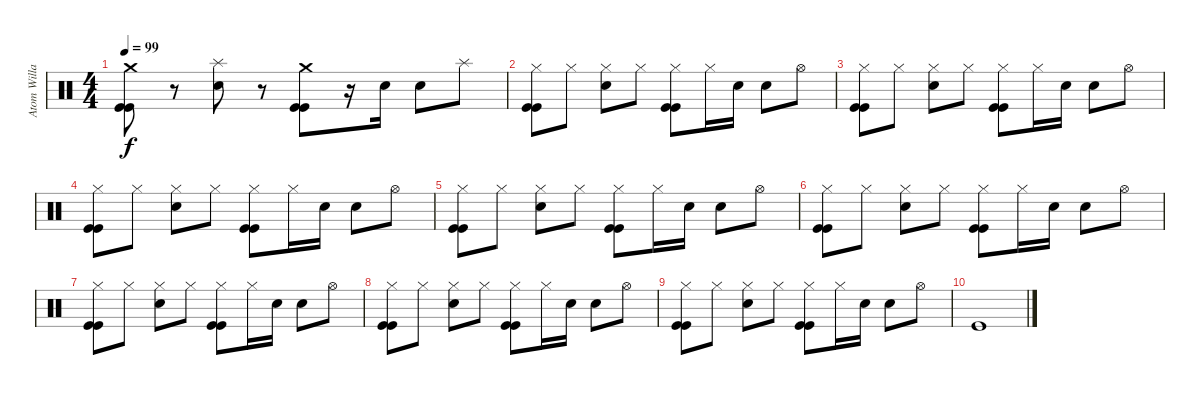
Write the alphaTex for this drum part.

\track ("Atom Willard" "Atom Willa") {instrument percussion}
\staff {score}
\articulation defaults
\ts (4 4)
\tempo 99
\clef neutral
\ks c
("Crash medium (hit)" "Kick (hit)" "Kick (hit)").8{dy f} r.8 ("Splash (hit)" "Electric Snare (hit)").8 r.8 ("Crash medium (hit)" "Kick (hit)" "Kick (hit)").8 r.16 "Electric Snare (hit)".16 "Electric Snare (hit)".8 "Splash (hit)".8 |
("Hi-Hat (closed)" "Kick (hit)" "Kick (hit)").8 "Hi-Hat (closed)".8 ("Hi-Hat (closed)" "Electric Snare (hit)").8 "Hi-Hat (closed)".8 ("Hi-Hat (closed)" "Kick (hit)" "Kick (hit)").8 "Hi-Hat (closed)".16 "Electric Snare (hit)".16 "Electric Snare (hit)".8 "Hi-Hat (open)".8 |
("Hi-Hat (closed)" "Kick (hit)" "Kick (hit)").8 "Hi-Hat (closed)".8 ("Hi-Hat (closed)" "Electric Snare (hit)").8 "Hi-Hat (closed)".8 ("Hi-Hat (closed)" "Kick (hit)" "Kick (hit)").8 "Hi-Hat (closed)".16 "Electric Snare (hit)".16 "Electric Snare (hit)".8 "Hi-Hat (open)".8 |
("Hi-Hat (closed)" "Kick (hit)" "Kick (hit)").8 "Hi-Hat (closed)".8 ("Hi-Hat (closed)" "Electric Snare (hit)").8 "Hi-Hat (closed)".8 ("Hi-Hat (closed)" "Kick (hit)" "Kick (hit)").8 "Hi-Hat (closed)".16 "Electric Snare (hit)".16 "Electric Snare (hit)".8 "Hi-Hat (open)".8 |
("Hi-Hat (closed)" "Kick (hit)" "Kick (hit)").8 "Hi-Hat (closed)".8 ("Hi-Hat (closed)" "Electric Snare (hit)").8 "Hi-Hat (closed)".8 ("Hi-Hat (closed)" "Kick (hit)" "Kick (hit)").8 "Hi-Hat (closed)".16 "Electric Snare (hit)".16 "Electric Snare (hit)".8 "Hi-Hat (open)".8 |
("Hi-Hat (closed)" "Kick (hit)" "Kick (hit)").8 "Hi-Hat (closed)".8 ("Hi-Hat (closed)" "Electric Snare (hit)").8 "Hi-Hat (closed)".8 ("Hi-Hat (closed)" "Kick (hit)" "Kick (hit)").8 "Hi-Hat (closed)".16 "Electric Snare (hit)".16 "Electric Snare (hit)".8 "Hi-Hat (open)".8 |
("Hi-Hat (closed)" "Kick (hit)" "Kick (hit)").8 "Hi-Hat (closed)".8 ("Hi-Hat (closed)" "Electric Snare (hit)").8 "Hi-Hat (closed)".8 ("Hi-Hat (closed)" "Kick (hit)" "Kick (hit)").8 "Hi-Hat (closed)".16 "Electric Snare (hit)".16 "Electric Snare (hit)".8 "Hi-Hat (open)".8 |
("Hi-Hat (closed)" "Kick (hit)" "Kick (hit)").8 "Hi-Hat (closed)".8 ("Hi-Hat (closed)" "Electric Snare (hit)").8 "Hi-Hat (closed)".8 ("Hi-Hat (closed)" "Kick (hit)" "Kick (hit)").8 "Hi-Hat (closed)".16 "Electric Snare (hit)".16 "Electric Snare (hit)".8 "Hi-Hat (open)".8 |
("Hi-Hat (closed)" "Kick (hit)" "Kick (hit)").8 "Hi-Hat (closed)".8 ("Hi-Hat (closed)" "Electric Snare (hit)").8 "Hi-Hat (closed)".8 ("Hi-Hat (closed)" "Kick (hit)" "Kick (hit)").8 "Hi-Hat (closed)".16 "Electric Snare (hit)".16 "Electric Snare (hit)".8 "Hi-Hat (open)".8 |
"Kick (hit)".1
